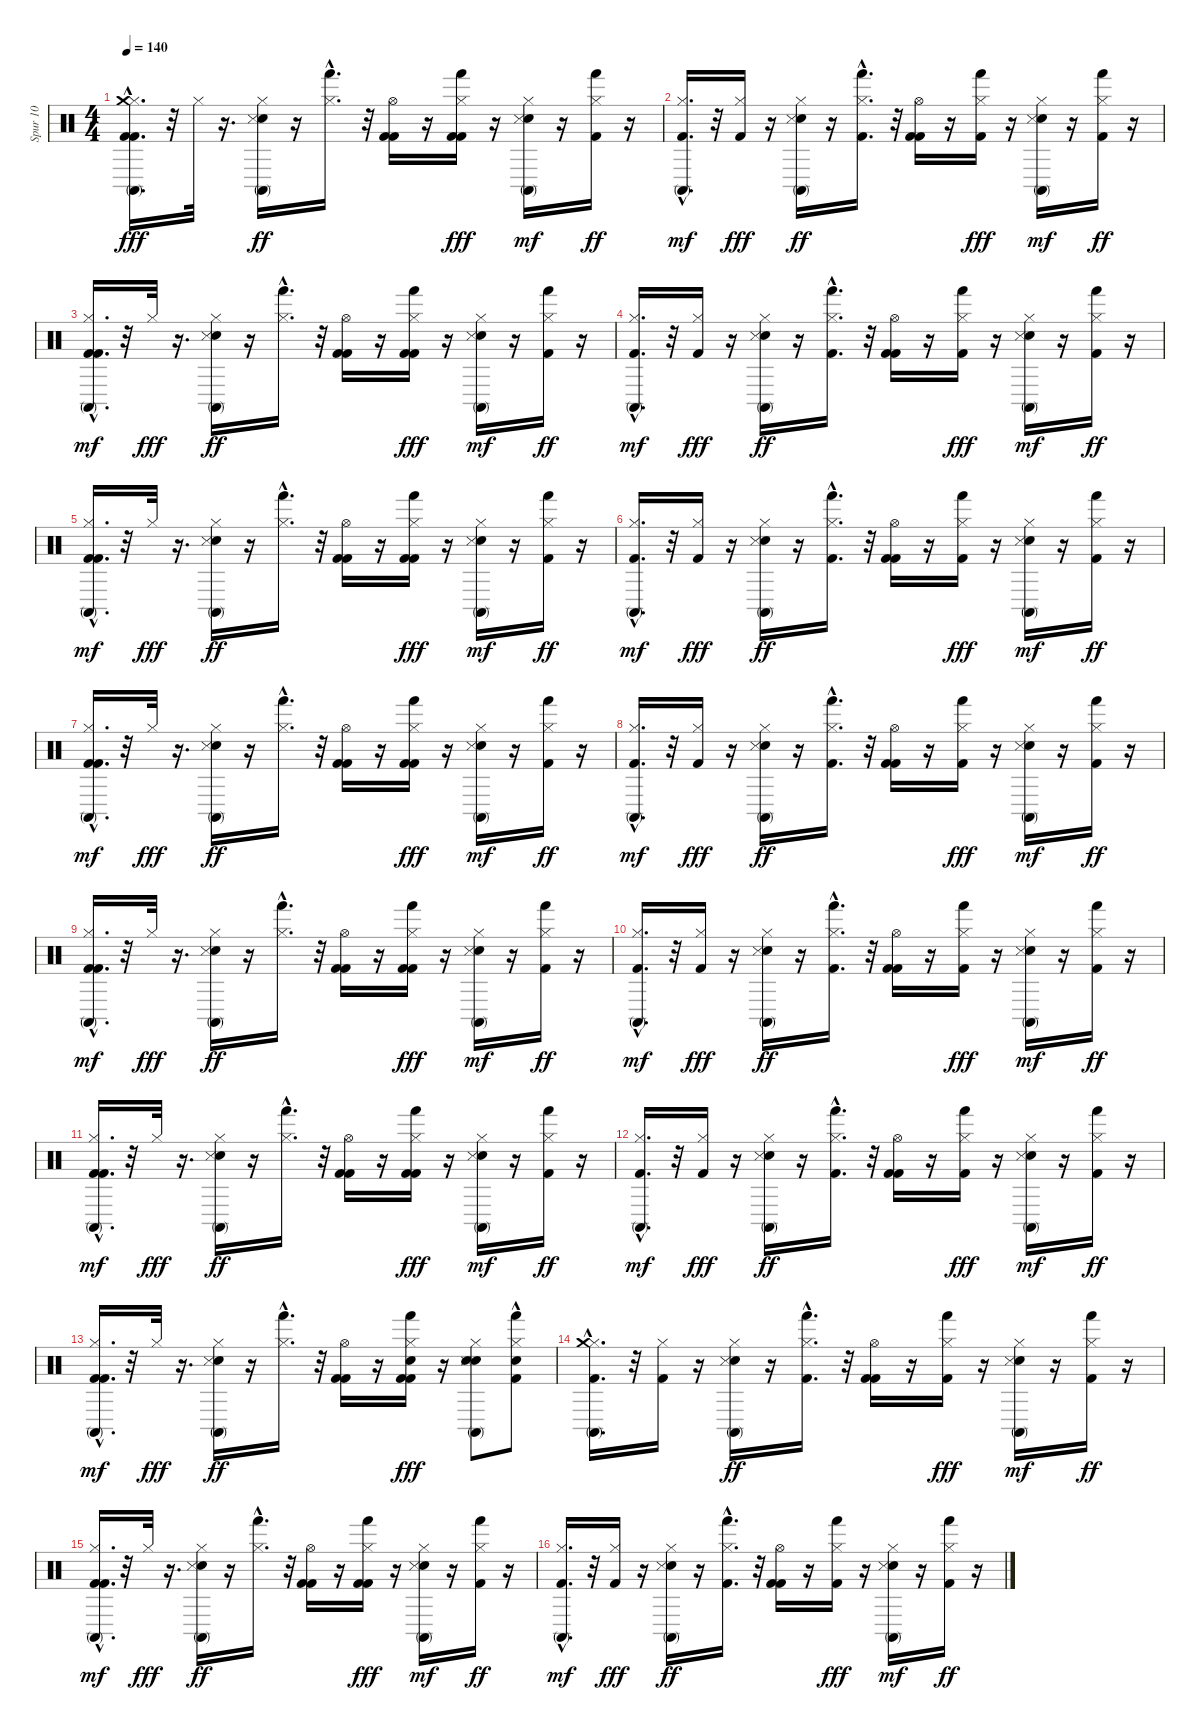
\track ("Spur 10" "Spur 10") {instrument percussion}
\staff {score}
\articulation defaults
\ts (4 4)
\tempo 140
\clef neutral
\ks c
("Kick (hit) 2" "Hi-Hat (closed)" "Kick (hit) 2" "Conga high (mute)"{hac} "Crash medium (hit)").16{d dy fff} r.32 "Hi-Hat (closed)".32 r.16{d} ("Electric Snare (hit)" "Hi-Hat (closed)" "Snare (side stick) 3" "Conga high (mute)").16{dy ff} r.16 ("Hi-Hat (closed)" "Hand (hit)"{hac}).16{d} r.32 ("Kick (hit) 2" "Hi-Hat (open)" "Kick (hit) 2").16 r.16 ("Kick (hit) 2" "Hi-Hat (closed)" "Kick (hit) 2" "Hand (hit)").16{dy fff} r.16 ("Electric Snare (hit)" "Hi-Hat (closed)" "Snare (side stick) 3" "Conga high (mute)").16{dy mf} r.16 ("Kick (hit) 2" "Hi-Hat (closed)" "Hand (hit)").16{dy ff} r.16 |
("Hi-Hat (closed)" "Kick (hit) 2" "Conga high (mute)"{hac}).16{d dy mf} r.32 ("Kick (hit) 2" "Hi-Hat (closed)").16{dy fff} r.16 ("Electric Snare (hit)" "Hi-Hat (closed)" "Snare (side stick) 3" "Conga high (mute)").16{dy ff} r.16 ("Kick (hit) 2" "Hi-Hat (closed)" "Hand (hit)"{hac}).16{d} r.32 ("Kick (hit) 2" "Hi-Hat (open)" "Kick (hit) 2").16 r.16 ("Hi-Hat (closed)" "Kick (hit) 2" "Hand (hit)").16{dy fff} r.16 ("Electric Snare (hit)" "Hi-Hat (closed)" "Snare (side stick) 3" "Conga high (mute)").16{dy mf} r.16 ("Kick (hit) 2" "Hi-Hat (closed)" "Hand (hit)").16{dy ff} r.16 |
("Kick (hit) 2" "Hi-Hat (closed)" "Kick (hit) 2" "Conga high (mute)"{hac}).16{d dy mf} r.32 "Hi-Hat (closed)".32{dy fff} r.16{d} ("Electric Snare (hit)" "Hi-Hat (closed)" "Snare (side stick) 3" "Conga high (mute)").16{dy ff} r.16 ("Hi-Hat (closed)" "Hand (hit)"{hac}).16{d} r.32 ("Kick (hit) 2" "Hi-Hat (open)" "Kick (hit) 2").16 r.16 ("Kick (hit) 2" "Hi-Hat (closed)" "Kick (hit) 2" "Hand (hit)").16{dy fff} r.16 ("Electric Snare (hit)" "Hi-Hat (closed)" "Snare (side stick) 3" "Conga high (mute)").16{dy mf} r.16 ("Kick (hit) 2" "Hi-Hat (closed)" "Hand (hit)").16{dy ff} r.16 |
("Hi-Hat (closed)" "Kick (hit) 2" "Conga high (mute)"{hac}).16{d dy mf} r.32 ("Kick (hit) 2" "Hi-Hat (closed)").16{dy fff} r.16 ("Electric Snare (hit)" "Hi-Hat (closed)" "Snare (side stick) 3" "Conga high (mute)").16{dy ff} r.16 ("Kick (hit) 2" "Hi-Hat (closed)" "Hand (hit)"{hac}).16{d} r.32 ("Kick (hit) 2" "Hi-Hat (open)" "Kick (hit) 2").16 r.16 ("Hi-Hat (closed)" "Kick (hit) 2" "Hand (hit)").16{dy fff} r.16 ("Electric Snare (hit)" "Hi-Hat (closed)" "Snare (side stick) 3" "Conga high (mute)").16{dy mf} r.16 ("Kick (hit) 2" "Hi-Hat (closed)" "Hand (hit)").16{dy ff} r.16 |
("Hi-Hat (closed)" "Kick (hit) 2" "Kick (hit) 2" "Conga high (mute)"{hac}).16{d dy mf} r.32 "Hi-Hat (closed)".32{dy fff} r.16{d} ("Hi-Hat (closed)" "Electric Snare (hit)" "Snare (side stick) 3" "Conga high (mute)").16{dy ff} r.16 ("Hi-Hat (closed)" "Hand (hit)"{hac}).16{d} r.32 ("Hi-Hat (open)" "Kick (hit) 2" "Kick (hit) 2").16 r.16 ("Hi-Hat (closed)" "Kick (hit) 2" "Kick (hit) 2" "Hand (hit)").16{dy fff} r.16 ("Hi-Hat (closed)" "Electric Snare (hit)" "Snare (side stick) 3" "Conga high (mute)").16{dy mf} r.16 ("Hi-Hat (closed)" "Kick (hit) 2" "Hand (hit)").16{dy ff} r.16 |
("Hi-Hat (closed)" "Kick (hit) 2" "Conga high (mute)"{hac}).16{d dy mf} r.32 ("Hi-Hat (closed)" "Kick (hit) 2").16{dy fff} r.16 ("Hi-Hat (closed)" "Electric Snare (hit)" "Snare (side stick) 3" "Conga high (mute)").16{dy ff} r.16 ("Hi-Hat (closed)" "Kick (hit) 2" "Hand (hit)"{hac}).16{d} r.32 ("Hi-Hat (open)" "Kick (hit) 2" "Kick (hit) 2").16 r.16 ("Hi-Hat (closed)" "Kick (hit) 2" "Hand (hit)").16{dy fff} r.16 ("Hi-Hat (closed)" "Electric Snare (hit)" "Snare (side stick) 3" "Conga high (mute)").16{dy mf} r.16 ("Hi-Hat (closed)" "Kick (hit) 2" "Hand (hit)").16{dy ff} r.16 |
("Hi-Hat (closed)" "Kick (hit) 2" "Kick (hit) 2" "Conga high (mute)"{hac}).16{d dy mf} r.32 "Hi-Hat (closed)".32{dy fff} r.16{d} ("Hi-Hat (closed)" "Electric Snare (hit)" "Snare (side stick) 3" "Conga high (mute)").16{dy ff} r.16 ("Hi-Hat (closed)" "Hand (hit)"{hac}).16{d} r.32 ("Hi-Hat (open)" "Kick (hit) 2" "Kick (hit) 2").16 r.16 ("Hi-Hat (closed)" "Kick (hit) 2" "Kick (hit) 2" "Hand (hit)").16{dy fff} r.16 ("Hi-Hat (closed)" "Electric Snare (hit)" "Snare (side stick) 3" "Conga high (mute)").16{dy mf} r.16 ("Hi-Hat (closed)" "Kick (hit) 2" "Hand (hit)").16{dy ff} r.16 |
("Hi-Hat (closed)" "Kick (hit) 2" "Conga high (mute)"{hac}).16{d dy mf} r.32 ("Kick (hit) 2" "Hi-Hat (closed)").16{dy fff} r.16 ("Electric Snare (hit)" "Hi-Hat (closed)" "Snare (side stick) 3" "Conga high (mute)").16{dy ff} r.16 ("Kick (hit) 2" "Hi-Hat (closed)" "Hand (hit)"{hac}).16{d} r.32 ("Kick (hit) 2" "Hi-Hat (open)" "Kick (hit) 2").16 r.16 ("Hi-Hat (closed)" "Kick (hit) 2" "Hand (hit)").16{dy fff} r.16 ("Electric Snare (hit)" "Hi-Hat (closed)" "Snare (side stick) 3" "Conga high (mute)").16{dy mf} r.16 ("Kick (hit) 2" "Hi-Hat (closed)" "Hand (hit)").16{dy ff} r.16 |
("Hi-Hat (closed)" "Kick (hit) 2" "Kick (hit) 2" "Conga high (mute)"{hac}).16{d dy mf} r.32 "Hi-Hat (closed)".32{dy fff} r.16{d} ("Hi-Hat (closed)" "Electric Snare (hit)" "Snare (side stick) 3" "Conga high (mute)").16{dy ff} r.16 ("Hi-Hat (closed)" "Hand (hit)"{hac}).16{d} r.32 ("Hi-Hat (open)" "Kick (hit) 2" "Kick (hit) 2").16 r.16 ("Hi-Hat (closed)" "Kick (hit) 2" "Kick (hit) 2" "Hand (hit)").16{dy fff} r.16 ("Hi-Hat (closed)" "Electric Snare (hit)" "Snare (side stick) 3" "Conga high (mute)").16{dy mf} r.16 ("Hi-Hat (closed)" "Kick (hit) 2" "Hand (hit)").16{dy ff} r.16 |
("Hi-Hat (closed)" "Kick (hit) 2" "Conga high (mute)"{hac}).16{d dy mf} r.32 ("Hi-Hat (closed)" "Kick (hit) 2").16{dy fff} r.16 ("Hi-Hat (closed)" "Electric Snare (hit)" "Snare (side stick) 3" "Conga high (mute)").16{dy ff} r.16 ("Hi-Hat (closed)" "Kick (hit) 2" "Hand (hit)"{hac}).16{d} r.32 ("Hi-Hat (open)" "Kick (hit) 2" "Kick (hit) 2").16 r.16 ("Hi-Hat (closed)" "Kick (hit) 2" "Hand (hit)").16{dy fff} r.16 ("Hi-Hat (closed)" "Electric Snare (hit)" "Snare (side stick) 3" "Conga high (mute)").16{dy mf} r.16 ("Hi-Hat (closed)" "Kick (hit) 2" "Hand (hit)").16{dy ff} r.16 |
("Hi-Hat (closed)" "Kick (hit) 2" "Kick (hit) 2" "Conga high (mute)"{hac}).16{d dy mf} r.32 "Hi-Hat (closed)".32{dy fff} r.16{d} ("Hi-Hat (closed)" "Electric Snare (hit)" "Snare (side stick) 3" "Conga high (mute)").16{dy ff} r.16 ("Hi-Hat (closed)" "Hand (hit)"{hac}).16{d} r.32 ("Hi-Hat (open)" "Kick (hit) 2" "Kick (hit) 2").16 r.16 ("Hi-Hat (closed)" "Kick (hit) 2" "Kick (hit) 2" "Hand (hit)").16{dy fff} r.16 ("Hi-Hat (closed)" "Electric Snare (hit)" "Snare (side stick) 3" "Conga high (mute)").16{dy mf} r.16 ("Hi-Hat (closed)" "Kick (hit) 2" "Hand (hit)").16{dy ff} r.16 |
("Hi-Hat (closed)" "Kick (hit) 2" "Conga high (mute)"{hac}).16{d dy mf} r.32 ("Kick (hit) 2" "Hi-Hat (closed)").16{dy fff} r.16 ("Electric Snare (hit)" "Hi-Hat (closed)" "Snare (side stick) 3" "Conga high (mute)").16{dy ff} r.16 ("Kick (hit) 2" "Hi-Hat (closed)" "Hand (hit)"{hac}).16{d} r.32 ("Kick (hit) 2" "Hi-Hat (open)" "Kick (hit) 2").16 r.16 ("Hi-Hat (closed)" "Kick (hit) 2" "Hand (hit)").16{dy fff} r.16 ("Electric Snare (hit)" "Hi-Hat (closed)" "Snare (side stick) 3" "Conga high (mute)").16{dy mf} r.16 ("Kick (hit) 2" "Hi-Hat (closed)" "Hand (hit)").16{dy ff} r.16 |
("Hi-Hat (closed)" "Kick (hit) 2" "Kick (hit) 2" "Conga high (mute)"{hac}).16{d dy mf} r.32 "Hi-Hat (closed)".32{dy fff} r.16{d} ("Hi-Hat (closed)" "Electric Snare (hit)" "Snare (side stick) 3" "Conga high (mute)").16{dy ff} r.16 ("Hi-Hat (closed)" "Hand (hit)"{hac}).16{d} r.32 ("Hi-Hat (open)" "Kick (hit) 2" "Kick (hit) 2").16 r.16 ("Hi-Hat (closed)" "Kick (hit) 2" "Kick (hit) 2" "Hand (hit)" "Electric Snare (hit)").16{dy fff} r.16 ("Hi-Hat (closed)" "Electric Snare (hit)" "Snare (side stick) 3" "Conga high (mute)" "Electric Snare (hit)").8 ("Hi-Hat (closed)" "Kick (hit) 2" "Hand (hit)" "Electric Snare (hit)"{hac}).8 |
("Hi-Hat (closed)" "Kick (hit) 2" "Conga high (mute)"{hac} "Crash medium (hit)").16{d} r.32 ("Hi-Hat (closed)" "Kick (hit) 2").16 r.16 ("Hi-Hat (closed)" "Electric Snare (hit)" "Snare (side stick) 3" "Conga high (mute)").16{dy ff} r.16 ("Hi-Hat (closed)" "Kick (hit) 2" "Hand (hit)"{hac}).16{d} r.32 ("Hi-Hat (open)" "Kick (hit) 2" "Kick (hit) 2").16 r.16 ("Hi-Hat (closed)" "Kick (hit) 2" "Hand (hit)").16{dy fff} r.16 ("Hi-Hat (closed)" "Electric Snare (hit)" "Snare (side stick) 3" "Conga high (mute)").16{dy mf} r.16 ("Hi-Hat (closed)" "Kick (hit) 2" "Hand (hit)").16{dy ff} r.16 |
("Hi-Hat (closed)" "Kick (hit) 2" "Kick (hit) 2" "Conga high (mute)"{hac}).16{d dy mf} r.32 "Hi-Hat (closed)".32{dy fff} r.16{d} ("Hi-Hat (closed)" "Electric Snare (hit)" "Snare (side stick) 3" "Conga high (mute)").16{dy ff} r.16 ("Hi-Hat (closed)" "Hand (hit)"{hac}).16{d} r.32 ("Hi-Hat (open)" "Kick (hit) 2" "Kick (hit) 2").16 r.16 ("Hi-Hat (closed)" "Kick (hit) 2" "Kick (hit) 2" "Hand (hit)").16{dy fff} r.16 ("Hi-Hat (closed)" "Electric Snare (hit)" "Snare (side stick) 3" "Conga high (mute)").16{dy mf} r.16 ("Hi-Hat (closed)" "Kick (hit) 2" "Hand (hit)").16{dy ff} r.16 |
("Hi-Hat (closed)" "Kick (hit) 2" "Conga high (mute)"{hac}).16{d dy mf} r.32 ("Hi-Hat (closed)" "Kick (hit) 2").16{dy fff} r.16 ("Hi-Hat (closed)" "Electric Snare (hit)" "Snare (side stick) 3" "Conga high (mute)").16{dy ff} r.16 ("Hi-Hat (closed)" "Kick (hit) 2" "Hand (hit)"{hac}).16{d} r.32 ("Hi-Hat (open)" "Kick (hit) 2" "Kick (hit) 2").16 r.16 ("Hi-Hat (closed)" "Kick (hit) 2" "Hand (hit)").16{dy fff} r.16 ("Hi-Hat (closed)" "Electric Snare (hit)" "Snare (side stick) 3" "Conga high (mute)").16{dy mf} r.16 ("Hi-Hat (closed)" "Kick (hit) 2" "Hand (hit)").16{dy ff} r.16
